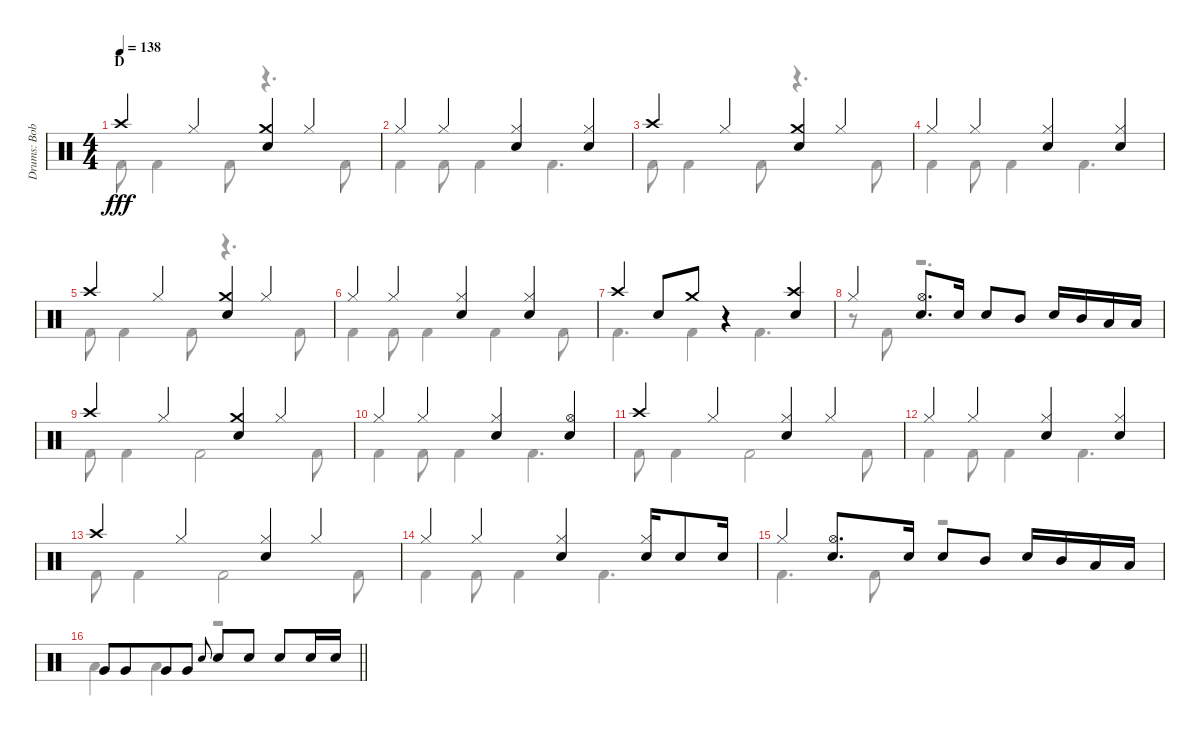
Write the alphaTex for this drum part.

\track ("Drums: Bobby" "Drums: Bob") {instrument percussion}
\staff {score}
\articulation defaults
\voice
\ts (4 4)
\section ("" "D")
\tempo 138
\clef neutral
\ks c "Crash high (hit)".4{dy fff} "Hi-Hat (closed)".4
("Crash medium (hit)" "Snare (hit) 2").4 "Hi-Hat (closed)".4 |
"Hi-Hat (closed)".4 "Hi-Hat (closed)".4 ("Hi-Hat (closed)" "Snare (hit) 2").4 ("Hi-Hat (closed)" "Snare (hit) 2").4 |
"Crash high (hit)".4 "Hi-Hat (closed)".4 ("Crash medium (hit)" "Snare (hit) 2").4 "Hi-Hat (closed)".4 |
"Hi-Hat (closed)".4 "Hi-Hat (closed)".4 ("Hi-Hat (closed)" "Snare (hit) 2").4 ("Hi-Hat (closed)" "Snare (hit) 2").4 |
"Crash high (hit)".4 "Hi-Hat (closed)".4 ("Crash medium (hit)" "Snare (hit) 2").4 "Hi-Hat (closed)".4 |
"Hi-Hat (closed)".4 "Hi-Hat (closed)".4 ("Hi-Hat (closed)" "Snare (hit) 2").4 ("Hi-Hat (closed)" "Snare (hit) 2").4 |
"Crash high (hit)".4 "Snare (hit) 2".8 "Crash medium (hit)".8 r.4 ("Crash high (hit)" "Snare (hit) 2").4 |
"Hi-Hat (closed)".4 ("Hi-Hat (open)" "Snare (hit) 2").8{d} "Snare (hit) 2".16 "Snare (hit) 2".8 "Mid Tom (hit)".8 "Snare (hit) 2".16 "Mid Tom (hit)".16 "Low Tom (hit)".16 "Low Tom (hit)".16 |
"Crash high (hit)".4 "Hi-Hat (closed)".4 ("Crash medium (hit)" "Snare (hit) 2").4 "Hi-Hat (closed)".4 |
"Hi-Hat (closed)".4 "Hi-Hat (closed)".4 ("Hi-Hat (closed)" "Snare (hit) 2").4 ("Hi-Hat (open)" "Snare (hit) 2").4 |
"Crash high (hit)".4 "Hi-Hat (closed)".4 ("Hi-Hat (closed)" "Snare (hit) 2").4 "Hi-Hat (closed)".4 |
"Hi-Hat (closed)".4 "Hi-Hat (closed)".4 ("Hi-Hat (closed)" "Snare (hit) 2").4 ("Hi-Hat (closed)" "Snare (hit) 2").4 |
"Crash high (hit)".4 "Hi-Hat (closed)".4 ("Hi-Hat (closed)" "Snare (hit) 2").4 "Hi-Hat (closed)".4 |
"Hi-Hat (closed)".4 "Hi-Hat (closed)".4 ("Hi-Hat (closed)" "Snare (hit) 2").4 ("Hi-Hat (closed)" "Snare (hit) 2").16 "Snare (hit) 2".8 "Snare (hit) 2".16 |
"Hi-Hat (closed)".4 ("Hi-Hat (open)" "Snare (hit) 2").8{d} "Snare (hit) 2".16 "Snare (hit) 2".8 "Mid Tom (hit)".8 "Snare (hit) 2".16 "Mid Tom (hit)".16 "Low Tom (hit)".16 "Low Tom (hit)".16 |
\barLineRight lightlight "Very Low Tom (hit)".8 "Very Low Tom (hit)".8{beam merge} "Very Low Tom (hit)".8 "Very Low Tom (hit)".8 "Electric Snare (hit)".8{gr onbeat} "Snare (hit) 2".8 "Snare (hit) 2".8 "Snare (hit) 2".8 "Snare (hit) 2".16 "Snare (hit) 2".16
\voice
\clef neutral
\ottava regular
\simile none
\ks c "Kick (hit) 2".8{dy fff} "Kick (hit) 2".4 "Kick (hit) 2".8
r.4{d} "Kick (hit) 2".8 |
"Kick (hit) 2".4 "Kick (hit) 2".8 "Kick (hit) 2".4 "Kick (hit) 2".4{d} |
"Kick (hit) 2".8 "Kick (hit) 2".4 "Kick (hit) 2".8 r.4{d} "Kick (hit) 2".8 |
"Kick (hit) 2".4 "Kick (hit) 2".8 "Kick (hit) 2".4 "Kick (hit) 2".4{d} |
"Kick (hit) 2".8 "Kick (hit) 2".4 "Kick (hit) 2".8 r.4{d} "Kick (hit) 2".8 |
"Kick (hit) 2".4 "Kick (hit) 2".8 "Kick (hit) 2".4 "Kick (hit) 2".4 "Kick (hit) 2".8 |
"Kick (hit) 2".4{d} "Kick (hit) 2".4 "Kick (hit) 2".4{d} |
r.8 "Kick (hit) 2".8 r.2{d} |
"Kick (hit) 2".8 "Kick (hit) 2".4 "Kick (hit) 2".2 "Kick (hit) 2".8 |
"Kick (hit) 2".4 "Kick (hit) 2".8 "Kick (hit) 2".4 "Kick (hit) 2".4{d} |
"Kick (hit) 2".8 "Kick (hit) 2".4 "Kick (hit) 2".2 "Kick (hit) 2".8 |
"Kick (hit) 2".4 "Kick (hit) 2".8 "Kick (hit) 2".4 "Kick (hit) 2".4{d} |
"Kick (hit) 2".8 "Kick (hit) 2".4 "Kick (hit) 2".2 "Kick (hit) 2".8 |
"Kick (hit) 2".4 "Kick (hit) 2".8 "Kick (hit) 2".4 "Kick (hit) 2".4{d} |
"Kick (hit) 2".4{d} "Kick (hit) 2".8 r.2 |
\barLineRight lightlight "Low Tom (hit)".4 "Low Tom (hit)".4
r.2
